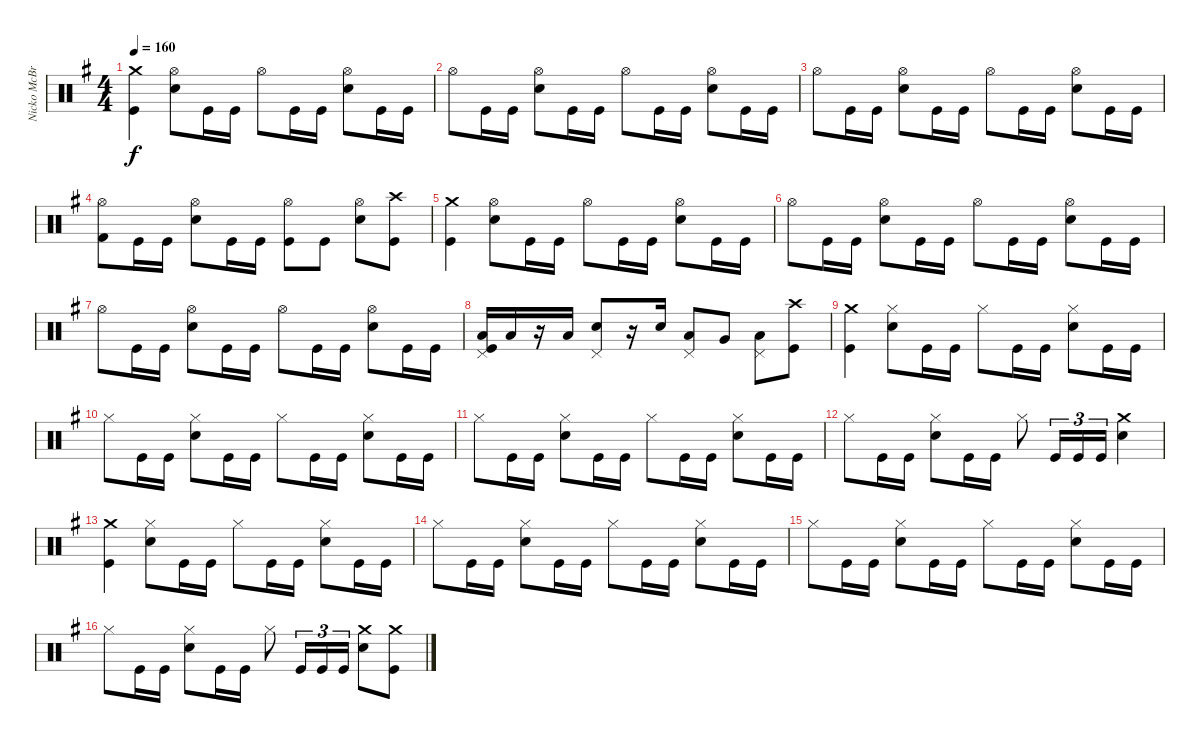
\track ("Nicko McBrain" "Nicko McBr") {instrument percussion}
\staff {score}
\articulation defaults
\ts (4 4)
\tempo 160
\clef neutral
\ks g
("Kick (hit)" "Crash medium (hit)").4{dy f} ("Electric Snare (hit)" "Hi-Hat (open)").8 "Kick (hit)".16 "Kick (hit)".16 "Hi-Hat (open)".8 "Kick (hit)".16 "Kick (hit)".16 ("Electric Snare (hit)" "Hi-Hat (open)").8 "Kick (hit)".16 "Kick (hit)".16 |
"Hi-Hat (open)".8 "Kick (hit)".16 "Kick (hit)".16 ("Electric Snare (hit)" "Hi-Hat (open)").8 "Kick (hit)".16 "Kick (hit)".16 "Hi-Hat (open)".8 "Kick (hit)".16 "Kick (hit)".16 ("Electric Snare (hit)" "Hi-Hat (open)").8 "Kick (hit)".16 "Kick (hit)".16 |
"Hi-Hat (open)".8 "Kick (hit)".16 "Kick (hit)".16 ("Electric Snare (hit)" "Hi-Hat (open)").8 "Kick (hit)".16 "Kick (hit)".16 "Hi-Hat (open)".8 "Kick (hit)".16 "Kick (hit)".16 ("Electric Snare (hit)" "Hi-Hat (open)").8 "Kick (hit)".16 "Kick (hit)".16 |
("Kick (hit) 2" "Hi-Hat (open)").8 "Kick (hit)".16 "Kick (hit)".16 ("Snare (hit) 2" "Hi-Hat (open)").8 "Kick (hit)".16 "Kick (hit)".16 ("Kick (hit)" "Hi-Hat (open)").8 "Kick (hit)".8 ("Electric Snare (hit)" "Hi-Hat (open)").8 ("Kick (hit)" "Crash high (hit)").8 |
("Kick (hit)" "Crash medium (hit)").4 ("Electric Snare (hit)" "Hi-Hat (open)").8 "Kick (hit)".16 "Kick (hit)".16 "Hi-Hat (open)".8 "Kick (hit)".16 "Kick (hit)".16 ("Electric Snare (hit)" "Hi-Hat (open)").8 "Kick (hit)".16 "Kick (hit)".16 |
"Hi-Hat (open)".8 "Kick (hit)".16 "Kick (hit)".16 ("Electric Snare (hit)" "Hi-Hat (open)").8 "Kick (hit)".16 "Kick (hit)".16 "Hi-Hat (open)".8 "Kick (hit)".16 "Kick (hit)".16 ("Electric Snare (hit)" "Hi-Hat (open)").8 "Kick (hit)".16 "Kick (hit)".16 |
"Hi-Hat (open)".8 "Kick (hit)".16 "Kick (hit)".16 ("Electric Snare (hit)" "Hi-Hat (open)").8 "Kick (hit)".16 "Kick (hit)".16 "Hi-Hat (open)".8 "Kick (hit)".16 "Kick (hit)".16 ("Electric Snare (hit)" "Hi-Hat (open)").8 "Kick (hit)".16 "Kick (hit)".16 |
("Kick (hit)" "Low Floor Tom (hit)" "Pedal Hi-Hat (hit)").16 "Low Floor Tom (hit)".16 r.16 "Low Floor Tom (hit)".16 ("Snare (hit) 2" "Pedal Hi-Hat (hit)").8 r.16 "Electric Snare (hit)".16 ("Low Tom (hit)" "Pedal Hi-Hat (hit)").8 "Very Low Tom (hit)".8 ("Low Floor Tom (hit)" "Pedal Hi-Hat (hit)").8 ("Kick (hit)" "Crash high (hit)").8 |
("Kick (hit)" "Crash medium (hit)").4 ("Electric Snare (hit)" "Hi-Hat (closed)").8 "Kick (hit)".16 "Kick (hit)".16 "Hi-Hat (closed)".8 "Kick (hit)".16 "Kick (hit)".16 ("Electric Snare (hit)" "Hi-Hat (closed)").8 "Kick (hit)".16 "Kick (hit)".16 |
"Hi-Hat (closed)".8 "Kick (hit)".16 "Kick (hit)".16 ("Electric Snare (hit)" "Hi-Hat (closed)").8 "Kick (hit)".16 "Kick (hit)".16 "Hi-Hat (closed)".8 "Kick (hit)".16 "Kick (hit)".16 ("Electric Snare (hit)" "Hi-Hat (closed)").8 "Kick (hit)".16 "Kick (hit)".16 |
"Hi-Hat (closed)".8 "Kick (hit)".16 "Kick (hit)".16 ("Electric Snare (hit)" "Hi-Hat (closed)").8 "Kick (hit)".16 "Kick (hit)".16 "Hi-Hat (closed)".8 "Kick (hit)".16 "Kick (hit)".16 ("Electric Snare (hit)" "Hi-Hat (closed)").8 "Kick (hit)".16 "Kick (hit)".16 |
"Hi-Hat (closed)".8 "Kick (hit)".16 "Kick (hit)".16 ("Electric Snare (hit)" "Hi-Hat (closed)").8 "Kick (hit)".16 "Kick (hit)".16 "Hi-Hat (closed)".8 "Kick (hit)".16{tu (3 2)} "Kick (hit)".16{tu (3 2)} "Kick (hit)".16{tu (3 2)} ("Electric Snare (hit)" "Crash medium (hit)").4 |
("Kick (hit)" "Crash medium (hit)").4 ("Electric Snare (hit)" "Hi-Hat (closed)").8 "Kick (hit)".16 "Kick (hit)".16 "Hi-Hat (closed)".8 "Kick (hit)".16 "Kick (hit)".16 ("Electric Snare (hit)" "Hi-Hat (closed)").8 "Kick (hit)".16 "Kick (hit)".16 |
"Hi-Hat (closed)".8 "Kick (hit)".16 "Kick (hit)".16 ("Electric Snare (hit)" "Hi-Hat (closed)").8 "Kick (hit)".16 "Kick (hit)".16 "Hi-Hat (closed)".8 "Kick (hit)".16 "Kick (hit)".16 ("Electric Snare (hit)" "Hi-Hat (closed)").8 "Kick (hit)".16 "Kick (hit)".16 |
"Hi-Hat (closed)".8 "Kick (hit)".16 "Kick (hit)".16 ("Electric Snare (hit)" "Hi-Hat (closed)").8 "Kick (hit)".16 "Kick (hit)".16 "Hi-Hat (closed)".8 "Kick (hit)".16 "Kick (hit)".16 ("Electric Snare (hit)" "Hi-Hat (closed)").8 "Kick (hit)".16 "Kick (hit)".16 |
"Hi-Hat (closed)".8 "Kick (hit)".16 "Kick (hit)".16 ("Electric Snare (hit)" "Hi-Hat (closed)").8 "Kick (hit)".16 "Kick (hit)".16 "Hi-Hat (closed)".8 "Kick (hit)".16{tu (3 2)} "Kick (hit)".16{tu (3 2)} "Kick (hit)".16{tu (3 2)} ("Electric Snare (hit)" "Crash medium (hit)").8 ("Kick (hit)" "Crash medium (hit)").8
